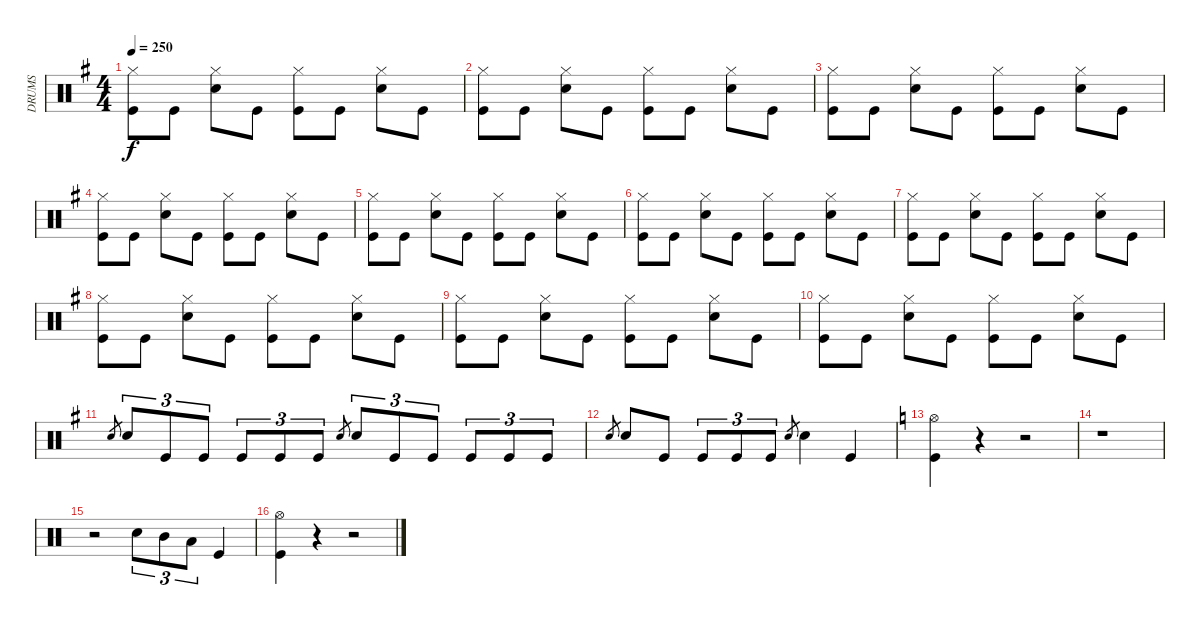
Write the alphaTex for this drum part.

\track ("DRUMS" "DRUMS") {instrument percussion}
\staff {score}
\articulation defaults
\ts (4 4)
\tempo 250
\clef neutral
\ks eminor
("Hi-Hat (closed)" "Kick (hit)").8{dy f} "Kick (hit)".8 ("Hi-Hat (closed)" "Snare (hit) 2").8 "Kick (hit)".8 ("Hi-Hat (closed)" "Kick (hit)").8 "Kick (hit)".8 ("Hi-Hat (closed)" "Snare (hit) 2").8 "Kick (hit)".8 |
("Hi-Hat (closed)" "Kick (hit)").8 "Kick (hit)".8 ("Hi-Hat (closed)" "Snare (hit) 2").8 "Kick (hit)".8 ("Hi-Hat (closed)" "Kick (hit)").8 "Kick (hit)".8 ("Hi-Hat (closed)" "Snare (hit) 2").8 "Kick (hit)".8 |
("Hi-Hat (closed)" "Kick (hit)").8 "Kick (hit)".8 ("Hi-Hat (closed)" "Snare (hit) 2").8 "Kick (hit)".8 ("Hi-Hat (closed)" "Kick (hit)").8 "Kick (hit)".8 ("Hi-Hat (closed)" "Snare (hit) 2").8 "Kick (hit)".8 |
("Hi-Hat (closed)" "Kick (hit)").8 "Kick (hit)".8 ("Hi-Hat (closed)" "Snare (hit) 2").8 "Kick (hit)".8 ("Hi-Hat (closed)" "Kick (hit)").8 "Kick (hit)".8 ("Hi-Hat (closed)" "Snare (hit) 2").8 "Kick (hit)".8 |
("Hi-Hat (closed)" "Kick (hit)").8 "Kick (hit)".8 ("Hi-Hat (closed)" "Snare (hit) 2").8 "Kick (hit)".8 ("Hi-Hat (closed)" "Kick (hit)").8 "Kick (hit)".8 ("Hi-Hat (closed)" "Snare (hit) 2").8 "Kick (hit)".8 |
("Hi-Hat (closed)" "Kick (hit)").8 "Kick (hit)".8 ("Hi-Hat (closed)" "Snare (hit) 2").8 "Kick (hit)".8 ("Hi-Hat (closed)" "Kick (hit)").8 "Kick (hit)".8 ("Hi-Hat (closed)" "Snare (hit) 2").8 "Kick (hit)".8 |
("Hi-Hat (closed)" "Kick (hit)").8 "Kick (hit)".8 ("Hi-Hat (closed)" "Snare (hit) 2").8 "Kick (hit)".8 ("Hi-Hat (closed)" "Kick (hit)").8 "Kick (hit)".8 ("Hi-Hat (closed)" "Snare (hit) 2").8 "Kick (hit)".8 |
("Hi-Hat (closed)" "Kick (hit)").8 "Kick (hit)".8 ("Hi-Hat (closed)" "Snare (hit) 2").8 "Kick (hit)".8 ("Hi-Hat (closed)" "Kick (hit)").8 "Kick (hit)".8 ("Hi-Hat (closed)" "Snare (hit) 2").8 "Kick (hit)".8 |
("Hi-Hat (closed)" "Kick (hit)").8 "Kick (hit)".8 ("Hi-Hat (closed)" "Snare (hit) 2").8 "Kick (hit)".8 ("Hi-Hat (closed)" "Kick (hit)").8 "Kick (hit)".8 ("Hi-Hat (closed)" "Snare (hit) 2").8 "Kick (hit)".8 |
("Hi-Hat (closed)" "Kick (hit)").8 "Kick (hit)".8 ("Hi-Hat (closed)" "Snare (hit) 2").8 "Kick (hit)".8 ("Hi-Hat (closed)" "Kick (hit)").8 "Kick (hit)".8 ("Hi-Hat (closed)" "Snare (hit) 2").8 "Kick (hit)".8 |
"Snare (hit) 2".8{gr} "Snare (hit) 2".8{tu (3 2)} "Kick (hit)".8{tu (3 2)} "Kick (hit)".8{tu (3 2)} "Kick (hit)".8{tu (3 2)} "Kick (hit)".8{tu (3 2)} "Kick (hit)".8{tu (3 2)} "Snare (hit) 2".8{gr} "Snare (hit) 2".8{tu (3 2)} "Kick (hit)".8{tu (3 2)} "Kick (hit)".8{tu (3 2)} "Kick (hit)".8{tu (3 2)} "Kick (hit)".8{tu (3 2)} "Kick (hit)".8{tu (3 2)} |
"Snare (hit) 2".8{gr} "Snare (hit) 2".8 "Kick (hit)".8 "Kick (hit)".8{tu (3 2)} "Kick (hit)".8{tu (3 2)} "Kick (hit)".8{tu (3 2)} "Snare (hit) 2".8{gr} "Snare (hit) 2".4 "Kick (hit)".4 |
\ks aminor
("Hi-Hat (open)" "Kick (hit)").4 r.4 r.2 |
r.1 |
r.2 "Snare (hit) 2".8{tu (3 2)} "Mid Tom (hit)".8{tu (3 2)} "Low Tom (hit)".8{tu (3 2)} "Kick (hit)".4 |
("Hi-Hat (open)" "Kick (hit)").4 r.4 r.2
